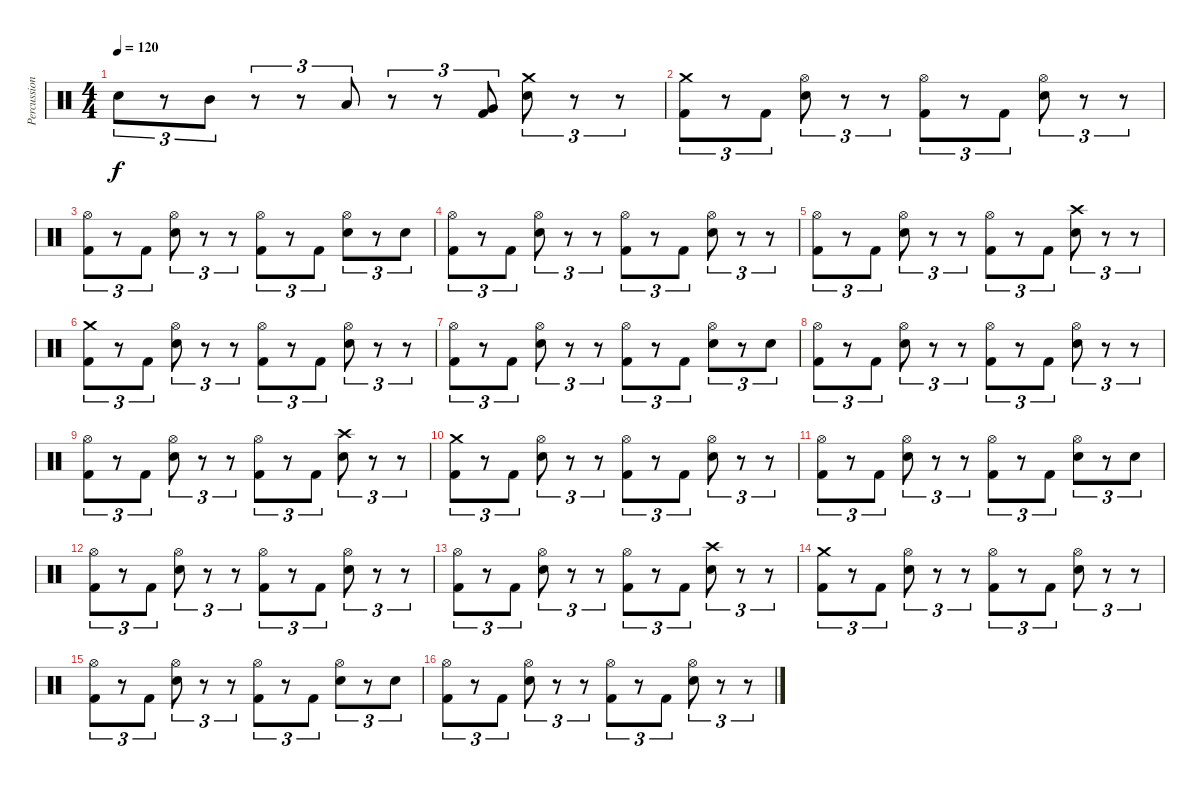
\track ("Percussion" "Percussion") {instrument percussion}
\staff {score}
\articulation defaults
\ts (4 4)
\tempo 120
\clef neutral
\ks c "Electric Snare (hit)".8{tu (3 2) dy f}
r.8{tu (3 2)} "Mid Tom (hit)".8{tu (3 2)} r.8{tu (3 2)} r.8{tu (3 2)} "Low Tom (hit)".8{tu (3 2)} r.8{tu (3 2)} r.8{tu (3 2)} ("Very Low Tom (hit)" "Kick (hit) 2").8{tu (3 2)} ("Crash medium (hit)" "Electric Snare (hit)").8{tu (3 2)} r.8{tu (3 2)} r.8{tu (3 2)} |
("Crash medium (hit)" "Kick (hit) 2").8{tu (3 2)} r.8{tu (3 2)} "Kick (hit) 2".8{tu (3 2)} ("Hi-Hat (open)" "Electric Snare (hit)").8{tu (3 2)} r.8{tu (3 2)} r.8{tu (3 2)} ("Hi-Hat (open)" "Kick (hit) 2").8{tu (3 2)} r.8{tu (3 2)} "Kick (hit) 2".8{tu (3 2)} ("Hi-Hat (open)" "Electric Snare (hit)").8{tu (3 2)} r.8{tu (3 2)} r.8{tu (3 2)} |
("Hi-Hat (open)" "Kick (hit) 2").8{tu (3 2)} r.8{tu (3 2)} "Kick (hit) 2".8{tu (3 2)} ("Hi-Hat (open)" "Electric Snare (hit)").8{tu (3 2)} r.8{tu (3 2)} r.8{tu (3 2)} ("Hi-Hat (open)" "Kick (hit) 2").8{tu (3 2)} r.8{tu (3 2)} "Kick (hit) 2".8{tu (3 2)} ("Hi-Hat (open)" "Electric Snare (hit)").8{tu (3 2)} r.8{tu (3 2)} "Electric Snare (hit)".8{tu (3 2)} |
("Hi-Hat (open)" "Kick (hit) 2").8{tu (3 2)} r.8{tu (3 2)} "Kick (hit) 2".8{tu (3 2)} ("Hi-Hat (open)" "Electric Snare (hit)").8{tu (3 2)} r.8{tu (3 2)} r.8{tu (3 2)} ("Hi-Hat (open)" "Kick (hit) 2").8{tu (3 2)} r.8{tu (3 2)} "Kick (hit) 2".8{tu (3 2)} ("Hi-Hat (open)" "Electric Snare (hit)").8{tu (3 2)} r.8{tu (3 2)} r.8{tu (3 2)} |
("Hi-Hat (open)" "Kick (hit) 2").8{tu (3 2)} r.8{tu (3 2)} "Kick (hit) 2".8{tu (3 2)} ("Hi-Hat (open)" "Electric Snare (hit)").8{tu (3 2)} r.8{tu (3 2)} r.8{tu (3 2)} ("Hi-Hat (open)" "Kick (hit) 2").8{tu (3 2)} r.8{tu (3 2)} "Kick (hit) 2".8{tu (3 2)} ("Crash high (hit)" "Electric Snare (hit)").8{tu (3 2)} r.8{tu (3 2)} r.8{tu (3 2)} |
("Crash medium (hit)" "Kick (hit) 2").8{tu (3 2)} r.8{tu (3 2)} "Kick (hit) 2".8{tu (3 2)} ("Hi-Hat (open)" "Electric Snare (hit)").8{tu (3 2)} r.8{tu (3 2)} r.8{tu (3 2)} ("Hi-Hat (open)" "Kick (hit) 2").8{tu (3 2)} r.8{tu (3 2)} "Kick (hit) 2".8{tu (3 2)} ("Hi-Hat (open)" "Electric Snare (hit)").8{tu (3 2)} r.8{tu (3 2)} r.8{tu (3 2)} |
("Hi-Hat (open)" "Kick (hit) 2").8{tu (3 2)} r.8{tu (3 2)} "Kick (hit) 2".8{tu (3 2)} ("Hi-Hat (open)" "Electric Snare (hit)").8{tu (3 2)} r.8{tu (3 2)} r.8{tu (3 2)} ("Hi-Hat (open)" "Kick (hit) 2").8{tu (3 2)} r.8{tu (3 2)} "Kick (hit) 2".8{tu (3 2)} ("Hi-Hat (open)" "Electric Snare (hit)").8{tu (3 2)} r.8{tu (3 2)} "Electric Snare (hit)".8{tu (3 2)} |
("Hi-Hat (open)" "Kick (hit) 2").8{tu (3 2)} r.8{tu (3 2)} "Kick (hit) 2".8{tu (3 2)} ("Hi-Hat (open)" "Electric Snare (hit)").8{tu (3 2)} r.8{tu (3 2)} r.8{tu (3 2)} ("Hi-Hat (open)" "Kick (hit) 2").8{tu (3 2)} r.8{tu (3 2)} "Kick (hit) 2".8{tu (3 2)} ("Hi-Hat (open)" "Electric Snare (hit)").8{tu (3 2)} r.8{tu (3 2)} r.8{tu (3 2)} |
("Hi-Hat (open)" "Kick (hit) 2").8{tu (3 2)} r.8{tu (3 2)} "Kick (hit) 2".8{tu (3 2)} ("Hi-Hat (open)" "Electric Snare (hit)").8{tu (3 2)} r.8{tu (3 2)} r.8{tu (3 2)} ("Hi-Hat (open)" "Kick (hit) 2").8{tu (3 2)} r.8{tu (3 2)} "Kick (hit) 2".8{tu (3 2)} ("Crash high (hit)" "Electric Snare (hit)").8{tu (3 2)} r.8{tu (3 2)} r.8{tu (3 2)} |
("Crash medium (hit)" "Kick (hit) 2").8{tu (3 2)} r.8{tu (3 2)} "Kick (hit) 2".8{tu (3 2)} ("Hi-Hat (open)" "Electric Snare (hit)").8{tu (3 2)} r.8{tu (3 2)} r.8{tu (3 2)} ("Hi-Hat (open)" "Kick (hit) 2").8{tu (3 2)} r.8{tu (3 2)} "Kick (hit) 2".8{tu (3 2)} ("Hi-Hat (open)" "Electric Snare (hit)").8{tu (3 2)} r.8{tu (3 2)} r.8{tu (3 2)} |
("Hi-Hat (open)" "Kick (hit) 2").8{tu (3 2)} r.8{tu (3 2)} "Kick (hit) 2".8{tu (3 2)} ("Hi-Hat (open)" "Electric Snare (hit)").8{tu (3 2)} r.8{tu (3 2)} r.8{tu (3 2)} ("Hi-Hat (open)" "Kick (hit) 2").8{tu (3 2)} r.8{tu (3 2)} "Kick (hit) 2".8{tu (3 2)} ("Hi-Hat (open)" "Electric Snare (hit)").8{tu (3 2)} r.8{tu (3 2)} "Electric Snare (hit)".8{tu (3 2)} |
("Hi-Hat (open)" "Kick (hit) 2").8{tu (3 2)} r.8{tu (3 2)} "Kick (hit) 2".8{tu (3 2)} ("Hi-Hat (open)" "Electric Snare (hit)").8{tu (3 2)} r.8{tu (3 2)} r.8{tu (3 2)} ("Hi-Hat (open)" "Kick (hit) 2").8{tu (3 2)} r.8{tu (3 2)} "Kick (hit) 2".8{tu (3 2)} ("Hi-Hat (open)" "Electric Snare (hit)").8{tu (3 2)} r.8{tu (3 2)} r.8{tu (3 2)} |
("Hi-Hat (open)" "Kick (hit) 2").8{tu (3 2)} r.8{tu (3 2)} "Kick (hit) 2".8{tu (3 2)} ("Hi-Hat (open)" "Electric Snare (hit)").8{tu (3 2)} r.8{tu (3 2)} r.8{tu (3 2)} ("Hi-Hat (open)" "Kick (hit) 2").8{tu (3 2)} r.8{tu (3 2)} "Kick (hit) 2".8{tu (3 2)} ("Crash high (hit)" "Electric Snare (hit)").8{tu (3 2)} r.8{tu (3 2)} r.8{tu (3 2)} |
("Crash medium (hit)" "Kick (hit) 2").8{tu (3 2)} r.8{tu (3 2)} "Kick (hit) 2".8{tu (3 2)} ("Hi-Hat (open)" "Electric Snare (hit)").8{tu (3 2)} r.8{tu (3 2)} r.8{tu (3 2)} ("Hi-Hat (open)" "Kick (hit) 2").8{tu (3 2)} r.8{tu (3 2)} "Kick (hit) 2".8{tu (3 2)} ("Hi-Hat (open)" "Electric Snare (hit)").8{tu (3 2)} r.8{tu (3 2)} r.8{tu (3 2)} |
("Hi-Hat (open)" "Kick (hit) 2").8{tu (3 2)} r.8{tu (3 2)} "Kick (hit) 2".8{tu (3 2)} ("Hi-Hat (open)" "Electric Snare (hit)").8{tu (3 2)} r.8{tu (3 2)} r.8{tu (3 2)} ("Hi-Hat (open)" "Kick (hit) 2").8{tu (3 2)} r.8{tu (3 2)} "Kick (hit) 2".8{tu (3 2)} ("Hi-Hat (open)" "Electric Snare (hit)").8{tu (3 2)} r.8{tu (3 2)} "Electric Snare (hit)".8{tu (3 2)} |
("Hi-Hat (open)" "Kick (hit) 2").8{tu (3 2)} r.8{tu (3 2)} "Kick (hit) 2".8{tu (3 2)} ("Hi-Hat (open)" "Electric Snare (hit)").8{tu (3 2)} r.8{tu (3 2)} r.8{tu (3 2)} ("Hi-Hat (open)" "Kick (hit) 2").8{tu (3 2)} r.8{tu (3 2)} "Kick (hit) 2".8{tu (3 2)} ("Hi-Hat (open)" "Electric Snare (hit)").8{tu (3 2)} r.8{tu (3 2)} r.8{tu (3 2)}
